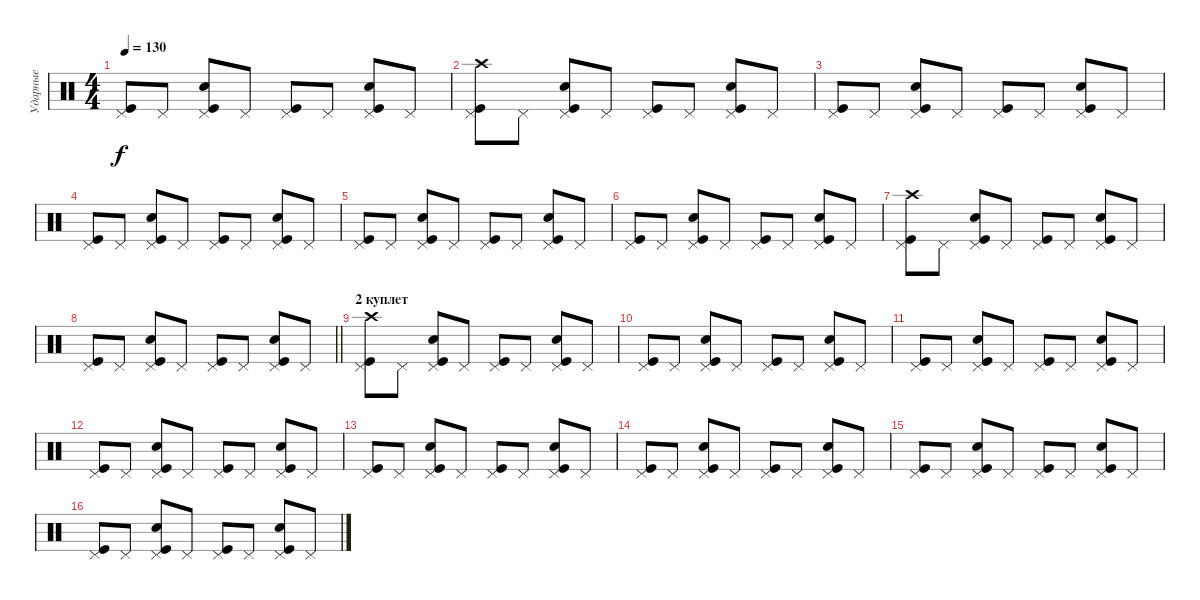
\track ("Ударные" "Ударные") {instrument percussion}
\staff {score}
\articulation defaults
\ts (4 4)
\tempo 130
\clef neutral
\ks c
("Pedal Hi-Hat (hit)" "Kick (hit)").8{dy f} "Pedal Hi-Hat (hit)".8 ("Pedal Hi-Hat (hit)" "Kick (hit)" "Snare (hit) 2").8 "Pedal Hi-Hat (hit)".8 ("Pedal Hi-Hat (hit)" "Kick (hit)").8 "Pedal Hi-Hat (hit)".8 ("Pedal Hi-Hat (hit)" "Kick (hit)" "Snare (hit) 2").8 "Pedal Hi-Hat (hit)".8 |
("Pedal Hi-Hat (hit)" "Kick (hit)" "Crash high (hit)").8 "Pedal Hi-Hat (hit)".8 ("Pedal Hi-Hat (hit)" "Kick (hit)" "Snare (hit) 2").8 "Pedal Hi-Hat (hit)".8 ("Pedal Hi-Hat (hit)" "Kick (hit)").8 "Pedal Hi-Hat (hit)".8 ("Pedal Hi-Hat (hit)" "Kick (hit)" "Snare (hit) 2").8 "Pedal Hi-Hat (hit)".8 |
("Pedal Hi-Hat (hit)" "Kick (hit)").8 "Pedal Hi-Hat (hit)".8 ("Pedal Hi-Hat (hit)" "Kick (hit)" "Snare (hit) 2").8 "Pedal Hi-Hat (hit)".8 ("Pedal Hi-Hat (hit)" "Kick (hit)").8 "Pedal Hi-Hat (hit)".8 ("Pedal Hi-Hat (hit)" "Kick (hit)" "Snare (hit) 2").8 "Pedal Hi-Hat (hit)".8 |
("Pedal Hi-Hat (hit)" "Kick (hit)").8 "Pedal Hi-Hat (hit)".8 ("Pedal Hi-Hat (hit)" "Kick (hit)" "Snare (hit) 2").8 "Pedal Hi-Hat (hit)".8 ("Pedal Hi-Hat (hit)" "Kick (hit)").8 "Pedal Hi-Hat (hit)".8 ("Pedal Hi-Hat (hit)" "Kick (hit)" "Snare (hit) 2").8 "Pedal Hi-Hat (hit)".8 |
("Pedal Hi-Hat (hit)" "Kick (hit)").8 "Pedal Hi-Hat (hit)".8 ("Pedal Hi-Hat (hit)" "Kick (hit)" "Snare (hit) 2").8 "Pedal Hi-Hat (hit)".8 ("Pedal Hi-Hat (hit)" "Kick (hit)").8 "Pedal Hi-Hat (hit)".8 ("Pedal Hi-Hat (hit)" "Kick (hit)" "Snare (hit) 2").8 "Pedal Hi-Hat (hit)".8 |
("Pedal Hi-Hat (hit)" "Kick (hit)").8 "Pedal Hi-Hat (hit)".8 ("Pedal Hi-Hat (hit)" "Kick (hit)" "Snare (hit) 2").8 "Pedal Hi-Hat (hit)".8 ("Pedal Hi-Hat (hit)" "Kick (hit)").8 "Pedal Hi-Hat (hit)".8 ("Pedal Hi-Hat (hit)" "Kick (hit)" "Snare (hit) 2").8 "Pedal Hi-Hat (hit)".8 |
("Pedal Hi-Hat (hit)" "Kick (hit)" "Crash high (hit)").8 "Pedal Hi-Hat (hit)".8 ("Pedal Hi-Hat (hit)" "Kick (hit)" "Snare (hit) 2").8 "Pedal Hi-Hat (hit)".8 ("Pedal Hi-Hat (hit)" "Kick (hit)").8 "Pedal Hi-Hat (hit)".8 ("Pedal Hi-Hat (hit)" "Kick (hit)" "Snare (hit) 2").8 "Pedal Hi-Hat (hit)".8 |
\barLineRight lightlight
("Pedal Hi-Hat (hit)" "Kick (hit)").8 "Pedal Hi-Hat (hit)".8 ("Pedal Hi-Hat (hit)" "Kick (hit)" "Snare (hit) 2").8 "Pedal Hi-Hat (hit)".8 ("Pedal Hi-Hat (hit)" "Kick (hit)").8 "Pedal Hi-Hat (hit)".8 ("Pedal Hi-Hat (hit)" "Kick (hit)" "Snare (hit) 2").8 "Pedal Hi-Hat (hit)".8 |
\section ("" "2 куплет")
("Pedal Hi-Hat (hit)" "Kick (hit)" "Crash high (hit)").8 "Pedal Hi-Hat (hit)".8 ("Pedal Hi-Hat (hit)" "Kick (hit)" "Snare (hit) 2").8 "Pedal Hi-Hat (hit)".8 ("Pedal Hi-Hat (hit)" "Kick (hit)").8 "Pedal Hi-Hat (hit)".8 ("Pedal Hi-Hat (hit)" "Kick (hit)" "Snare (hit) 2").8 "Pedal Hi-Hat (hit)".8 |
("Pedal Hi-Hat (hit)" "Kick (hit)").8 "Pedal Hi-Hat (hit)".8 ("Pedal Hi-Hat (hit)" "Kick (hit)" "Snare (hit) 2").8 "Pedal Hi-Hat (hit)".8 ("Pedal Hi-Hat (hit)" "Kick (hit)").8 "Pedal Hi-Hat (hit)".8 ("Pedal Hi-Hat (hit)" "Kick (hit)" "Snare (hit) 2").8 "Pedal Hi-Hat (hit)".8 |
("Pedal Hi-Hat (hit)" "Kick (hit)").8 "Pedal Hi-Hat (hit)".8 ("Pedal Hi-Hat (hit)" "Kick (hit)" "Snare (hit) 2").8 "Pedal Hi-Hat (hit)".8 ("Pedal Hi-Hat (hit)" "Kick (hit)").8 "Pedal Hi-Hat (hit)".8 ("Pedal Hi-Hat (hit)" "Kick (hit)" "Snare (hit) 2").8 "Pedal Hi-Hat (hit)".8 |
("Pedal Hi-Hat (hit)" "Kick (hit)").8 "Pedal Hi-Hat (hit)".8 ("Pedal Hi-Hat (hit)" "Kick (hit)" "Snare (hit) 2").8 "Pedal Hi-Hat (hit)".8 ("Pedal Hi-Hat (hit)" "Kick (hit)").8 "Pedal Hi-Hat (hit)".8 ("Pedal Hi-Hat (hit)" "Kick (hit)" "Snare (hit) 2").8 "Pedal Hi-Hat (hit)".8 |
("Pedal Hi-Hat (hit)" "Kick (hit)").8 "Pedal Hi-Hat (hit)".8 ("Pedal Hi-Hat (hit)" "Kick (hit)" "Snare (hit) 2").8 "Pedal Hi-Hat (hit)".8 ("Pedal Hi-Hat (hit)" "Kick (hit)").8 "Pedal Hi-Hat (hit)".8 ("Pedal Hi-Hat (hit)" "Kick (hit)" "Snare (hit) 2").8 "Pedal Hi-Hat (hit)".8 |
("Pedal Hi-Hat (hit)" "Kick (hit)").8 "Pedal Hi-Hat (hit)".8 ("Pedal Hi-Hat (hit)" "Kick (hit)" "Snare (hit) 2").8 "Pedal Hi-Hat (hit)".8 ("Pedal Hi-Hat (hit)" "Kick (hit)").8 "Pedal Hi-Hat (hit)".8 ("Pedal Hi-Hat (hit)" "Kick (hit)" "Snare (hit) 2").8 "Pedal Hi-Hat (hit)".8 |
("Pedal Hi-Hat (hit)" "Kick (hit)").8 "Pedal Hi-Hat (hit)".8 ("Pedal Hi-Hat (hit)" "Kick (hit)" "Snare (hit) 2").8 "Pedal Hi-Hat (hit)".8 ("Pedal Hi-Hat (hit)" "Kick (hit)").8 "Pedal Hi-Hat (hit)".8 ("Pedal Hi-Hat (hit)" "Kick (hit)" "Snare (hit) 2").8 "Pedal Hi-Hat (hit)".8 |
("Pedal Hi-Hat (hit)" "Kick (hit)").8 "Pedal Hi-Hat (hit)".8 ("Pedal Hi-Hat (hit)" "Kick (hit)" "Snare (hit) 2").8 "Pedal Hi-Hat (hit)".8 ("Pedal Hi-Hat (hit)" "Kick (hit)").8 "Pedal Hi-Hat (hit)".8 ("Pedal Hi-Hat (hit)" "Kick (hit)" "Snare (hit) 2").8 "Pedal Hi-Hat (hit)".8
